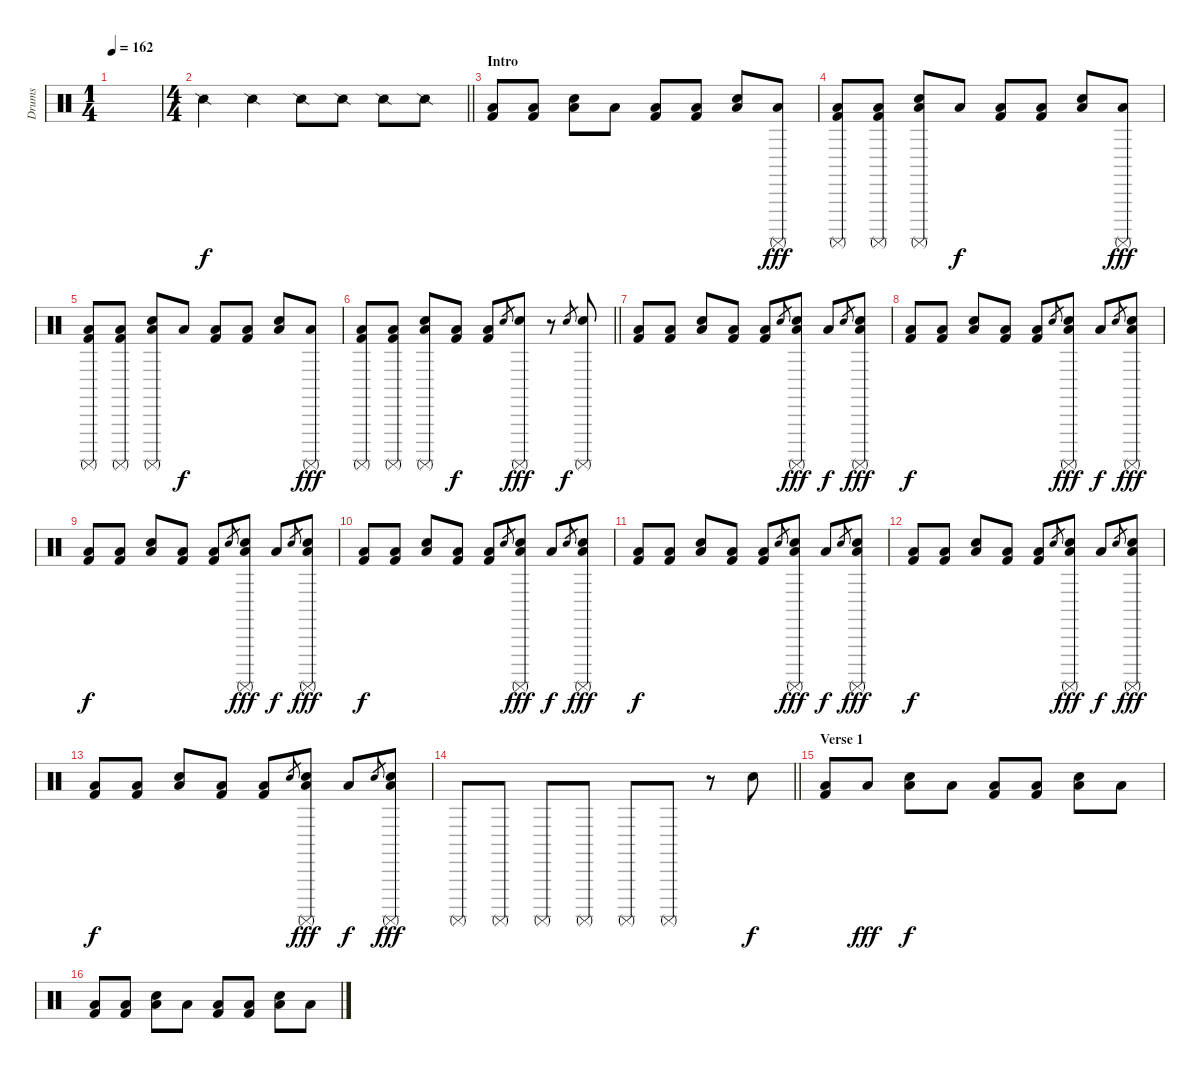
\track ("Drums" "Drums") {instrument percussion}
\staff {score}
\articulation defaults
\ts (1 4)
\tempo 162
\clef neutral
\ks c
|
\ts (4 4)
\barLineRight lightlight "Snare (side stick) 2".4 "Snare (side stick) 2".4 "Snare (side stick) 2".8 "Snare (side stick) 2".8 "Snare (side stick) 2".8 "Snare (side stick) 2".8
|
\section ("" "Intro")
("Low Floor Tom (hit)" "Kick (hit) 2").8 ("Low Floor Tom (hit)" "Kick (hit) 2").8 ("Electric Snare (hit)" "Low Floor Tom (hit)").8 "Low Floor Tom (hit)".8 ("Low Floor Tom (hit)" "Kick (hit) 2").8 ("Low Floor Tom (hit)" "Kick (hit) 2").8 ("Electric Snare (hit)" "Low Floor Tom (hit)").8 ("Surdo (mute)" "Low Floor Tom (hit)").8{dy fff} |
("Surdo (mute)" "Low Floor Tom (hit)" "Kick (hit) 2").8 ("Surdo (mute)" "Low Floor Tom (hit)" "Kick (hit) 2").8 ("Surdo (mute)" "Electric Snare (hit)" "Low Floor Tom (hit)").8 "Low Floor Tom (hit)".8{dy f} ("Low Floor Tom (hit)" "Kick (hit) 2").8 ("Low Floor Tom (hit)" "Kick (hit) 2").8 ("Electric Snare (hit)" "Low Floor Tom (hit)").8 ("Surdo (mute)" "Low Floor Tom (hit)").8{dy fff} |
("Surdo (mute)" "Low Floor Tom (hit)" "Kick (hit) 2").8 ("Surdo (mute)" "Low Floor Tom (hit)" "Kick (hit) 2").8 ("Surdo (mute)" "Electric Snare (hit)" "Low Floor Tom (hit)").8 "Low Floor Tom (hit)".8{dy f} ("Low Floor Tom (hit)" "Kick (hit) 2").8 ("Low Floor Tom (hit)" "Kick (hit) 2").8 ("Electric Snare (hit)" "Low Floor Tom (hit)").8 ("Surdo (mute)" "Low Floor Tom (hit)").8{dy fff} |
\barLineRight lightlight
("Surdo (mute)" "Low Floor Tom (hit)" "Kick (hit) 2").8 ("Surdo (mute)" "Low Floor Tom (hit)" "Kick (hit) 2").8 ("Surdo (mute)" "Electric Snare (hit)" "Low Floor Tom (hit)").8 ("Low Floor Tom (hit)" "Kick (hit) 2").8{dy f} ("Low Floor Tom (hit)" "Kick (hit) 2").8 "Electric Snare (hit)".8{gr} ("Surdo (mute)" "Electric Snare (hit)").8{dy fff} r.8 "Electric Snare (hit)".8{gr dy f} ("Surdo (mute)" "Electric Snare (hit)").8 |
("Low Floor Tom (hit)" "Kick (hit) 2").8 ("Low Floor Tom (hit)" "Kick (hit) 2").8 ("Electric Snare (hit)" "Low Floor Tom (hit)").8 ("Low Floor Tom (hit)" "Kick (hit) 2").8 ("Low Floor Tom (hit)" "Kick (hit) 2").8 "Electric Snare (hit)".8{gr} ("Surdo (mute)" "Electric Snare (hit)" "Low Floor Tom (hit)").8{dy fff} "Low Floor Tom (hit)".8{dy f} "Electric Snare (hit)".8{gr} ("Surdo (mute)" "Electric Snare (hit)" "Low Floor Tom (hit)").8{dy fff} |
("Low Floor Tom (hit)" "Kick (hit) 2").8{dy f} ("Low Floor Tom (hit)" "Kick (hit) 2").8 ("Electric Snare (hit)" "Low Floor Tom (hit)").8 ("Low Floor Tom (hit)" "Kick (hit) 2").8 ("Low Floor Tom (hit)" "Kick (hit) 2").8 "Electric Snare (hit)".8{gr} ("Surdo (mute)" "Electric Snare (hit)" "Low Floor Tom (hit)").8{dy fff} "Low Floor Tom (hit)".8{dy f} "Electric Snare (hit)".8{gr} ("Surdo (mute)" "Electric Snare (hit)" "Low Floor Tom (hit)").8{dy fff} |
("Low Floor Tom (hit)" "Kick (hit) 2").8{dy f} ("Low Floor Tom (hit)" "Kick (hit) 2").8 ("Electric Snare (hit)" "Low Floor Tom (hit)").8 ("Low Floor Tom (hit)" "Kick (hit) 2").8 ("Low Floor Tom (hit)" "Kick (hit) 2").8 "Electric Snare (hit)".8{gr} ("Surdo (mute)" "Electric Snare (hit)" "Low Floor Tom (hit)").8{dy fff} "Low Floor Tom (hit)".8{dy f} "Electric Snare (hit)".8{gr} ("Surdo (mute)" "Electric Snare (hit)" "Low Floor Tom (hit)").8{dy fff} |
("Low Floor Tom (hit)" "Kick (hit) 2").8{dy f} ("Low Floor Tom (hit)" "Kick (hit) 2").8 ("Electric Snare (hit)" "Low Floor Tom (hit)").8 ("Low Floor Tom (hit)" "Kick (hit) 2").8 ("Low Floor Tom (hit)" "Kick (hit) 2").8 "Electric Snare (hit)".8{gr} ("Surdo (mute)" "Electric Snare (hit)" "Low Floor Tom (hit)").8{dy fff} "Low Floor Tom (hit)".8{dy f} "Electric Snare (hit)".8{gr} ("Surdo (mute)" "Electric Snare (hit)" "Low Floor Tom (hit)").8{dy fff} |
("Low Floor Tom (hit)" "Kick (hit) 2").8{dy f} ("Low Floor Tom (hit)" "Kick (hit) 2").8 ("Electric Snare (hit)" "Low Floor Tom (hit)").8 ("Low Floor Tom (hit)" "Kick (hit) 2").8 ("Low Floor Tom (hit)" "Kick (hit) 2").8 "Electric Snare (hit)".8{gr} ("Surdo (mute)" "Electric Snare (hit)" "Low Floor Tom (hit)").8{dy fff} "Low Floor Tom (hit)".8{dy f} "Electric Snare (hit)".8{gr} ("Surdo (mute)" "Electric Snare (hit)" "Low Floor Tom (hit)").8{dy fff} |
("Low Floor Tom (hit)" "Kick (hit) 2").8{dy f} ("Low Floor Tom (hit)" "Kick (hit) 2").8 ("Electric Snare (hit)" "Low Floor Tom (hit)").8 ("Low Floor Tom (hit)" "Kick (hit) 2").8 ("Low Floor Tom (hit)" "Kick (hit) 2").8 "Electric Snare (hit)".8{gr} ("Surdo (mute)" "Electric Snare (hit)" "Low Floor Tom (hit)").8{dy fff} "Low Floor Tom (hit)".8{dy f} "Electric Snare (hit)".8{gr} ("Surdo (mute)" "Electric Snare (hit)" "Low Floor Tom (hit)").8{dy fff} |
("Low Floor Tom (hit)" "Kick (hit) 2").8{dy f} ("Low Floor Tom (hit)" "Kick (hit) 2").8 ("Electric Snare (hit)" "Low Floor Tom (hit)").8 ("Low Floor Tom (hit)" "Kick (hit) 2").8 ("Low Floor Tom (hit)" "Kick (hit) 2").8 "Electric Snare (hit)".8{gr} ("Surdo (mute)" "Electric Snare (hit)" "Low Floor Tom (hit)").8{dy fff} "Low Floor Tom (hit)".8{dy f} "Electric Snare (hit)".8{gr} ("Surdo (mute)" "Electric Snare (hit)" "Low Floor Tom (hit)").8{dy fff} |
\barLineRight lightlight "Surdo (mute)".8 "Surdo (mute)".8 "Surdo (mute)".8 "Surdo (mute)".8 "Surdo (mute)".8 "Surdo (mute)".8
r.8 "Electric Snare (hit)".8{dy f} |
\section ("" "Verse 1")
("Low Floor Tom (hit)" "Kick (hit) 2").8 "Low Floor Tom (hit)".8{dy fff} ("Electric Snare (hit)" "Low Floor Tom (hit)").8{dy f} "Low Floor Tom (hit)".8 ("Low Floor Tom (hit)" "Kick (hit) 2").8 ("Low Floor Tom (hit)" "Kick (hit) 2").8 ("Electric Snare (hit)" "Low Floor Tom (hit)").8 "Low Floor Tom (hit)".8 |
("Low Floor Tom (hit)" "Kick (hit) 2").8 ("Low Floor Tom (hit)" "Kick (hit) 2").8 ("Electric Snare (hit)" "Low Floor Tom (hit)").8 "Low Floor Tom (hit)".8 ("Low Floor Tom (hit)" "Kick (hit) 2").8 ("Low Floor Tom (hit)" "Kick (hit) 2").8 ("Electric Snare (hit)" "Low Floor Tom (hit)").8 "Low Floor Tom (hit)".8
